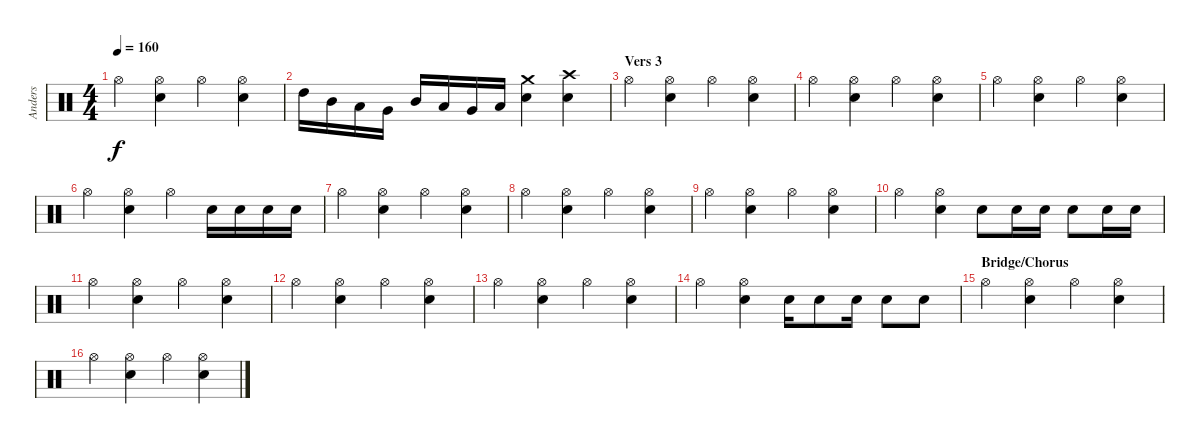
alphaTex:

\track ("Anders" "Anders") {instrument percussion}
\staff {score}
\articulation defaults
\ts (4 4)
\tempo 160
\clef neutral
\ks c "Hi-Hat (open)".4{dy f}
("Hi-Hat (open)" "Snare (hit) 2").4 "Hi-Hat (open)".4 ("Hi-Hat (open)" "Snare (hit) 2").4 |
"High Tom (hit)".16 "Mid Tom (hit)".16 "Low Tom (hit)".16 "Very Low Tom (hit)".16 "Mid Tom (hit)".16 "Low Tom (hit)".16 "Very Low Tom (hit)".16 "Low Floor Tom (hit)".16 ("Crash medium (hit)" "Snare (hit) 2").4 ("Crash high (hit)" "Snare (hit) 2").4 |
\section ("" "Vers 3")
"Hi-Hat (open)".4 ("Hi-Hat (open)" "Snare (hit) 2").4 "Hi-Hat (open)".4 ("Hi-Hat (open)" "Snare (hit) 2").4 |
"Hi-Hat (open)".4 ("Hi-Hat (open)" "Snare (hit) 2").4 "Hi-Hat (open)".4 ("Hi-Hat (open)" "Snare (hit) 2").4 |
"Hi-Hat (open)".4 ("Hi-Hat (open)" "Snare (hit) 2").4 "Hi-Hat (open)".4 ("Hi-Hat (open)" "Snare (hit) 2").4 |
"Hi-Hat (open)".4 ("Hi-Hat (open)" "Snare (hit) 2").4 "Hi-Hat (open)".4 "Snare (hit) 2".16 "Snare (hit) 2".16 "Snare (hit) 2".16 "Snare (hit) 2".16 |
"Hi-Hat (open)".4 ("Hi-Hat (open)" "Snare (hit) 2").4 "Hi-Hat (open)".4 ("Hi-Hat (open)" "Snare (hit) 2").4 |
"Hi-Hat (open)".4 ("Hi-Hat (open)" "Snare (hit) 2").4 "Hi-Hat (open)".4 ("Hi-Hat (open)" "Snare (hit) 2").4 |
"Hi-Hat (open)".4 ("Hi-Hat (open)" "Snare (hit) 2").4 "Hi-Hat (open)".4 ("Hi-Hat (open)" "Snare (hit) 2").4 |
"Hi-Hat (open)".4 ("Hi-Hat (open)" "Snare (hit) 2").4 "Snare (hit) 2".8 "Snare (hit) 2".16 "Snare (hit) 2".16 "Snare (hit) 2".8 "Snare (hit) 2".16 "Snare (hit) 2".16 |
"Hi-Hat (open)".4 ("Hi-Hat (open)" "Snare (hit) 2").4 "Hi-Hat (open)".4 ("Hi-Hat (open)" "Snare (hit) 2").4 |
"Hi-Hat (open)".4 ("Hi-Hat (open)" "Snare (hit) 2").4 "Hi-Hat (open)".4 ("Hi-Hat (open)" "Snare (hit) 2").4 |
"Hi-Hat (open)".4 ("Hi-Hat (open)" "Snare (hit) 2").4 "Hi-Hat (open)".4 ("Hi-Hat (open)" "Snare (hit) 2").4 |
"Hi-Hat (open)".4 ("Hi-Hat (open)" "Snare (hit) 2").4 "Snare (hit) 2".16 "Snare (hit) 2".8 "Snare (hit) 2".16 "Snare (hit) 2".8 "Snare (hit) 2".8 |
\section ("" "Bridge/Chorus")
"Hi-Hat (open)".4 ("Hi-Hat (open)" "Snare (hit) 2").4 "Hi-Hat (open)".4 ("Hi-Hat (open)" "Snare (hit) 2").4 |
"Hi-Hat (open)".4 ("Hi-Hat (open)" "Snare (hit) 2").4 "Hi-Hat (open)".4 ("Hi-Hat (open)" "Snare (hit) 2").4
